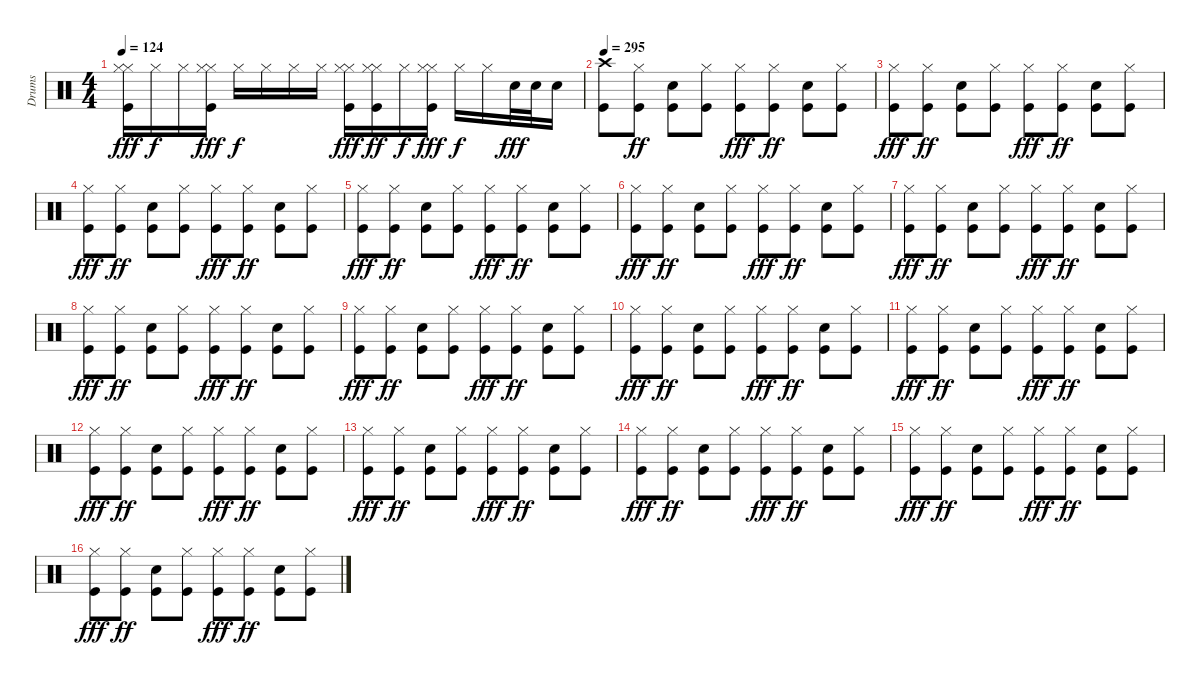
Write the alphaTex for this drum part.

\track ("Drums" "Drums") {instrument percussion}
\staff {score}
\articulation defaults
\ts (4 4)
\tempo 124
\clef neutral
\ks c
("Hi-Hat (closed)" "Hi-Hat (closed)" "Kick (hit)").16{dy fff} "Hi-Hat (closed)".16{dy f} "Hi-Hat (closed)".16 ("Hi-Hat (closed)" "Hi-Hat (closed)" "Kick (hit)").16{dy fff} "Hi-Hat (closed)".16{dy f} "Hi-Hat (closed)".16 "Hi-Hat (closed)".16 "Hi-Hat (closed)".16 ("Hi-Hat (closed)" "Hi-Hat (closed)" "Kick (hit)").16{dy fff} ("Hi-Hat (closed)" "Hi-Hat (closed)" "Kick (hit)").16{dy ff} "Hi-Hat (closed)".16{dy f} ("Hi-Hat (closed)" "Hi-Hat (closed)" "Kick (hit)").16{dy fff} "Hi-Hat (closed)".16{dy f} "Hi-Hat (closed)".16 "Snare (hit) 2".32{dy fff} "Snare (hit) 2".32 "Snare (hit) 2".16 |
\tempo 295
("Crash high (hit)" "Kick (hit)").8 ("Hi-Hat (closed)" "Kick (hit)").8{dy ff} ("Snare (hit) 2" "Kick (hit)").8 ("Hi-Hat (closed)" "Kick (hit)").8 ("Hi-Hat (closed)" "Kick (hit)").8{dy fff} ("Hi-Hat (closed)" "Kick (hit)").8{dy ff} ("Snare (hit) 2" "Kick (hit)").8 ("Hi-Hat (closed)" "Kick (hit)").8 |
("Hi-Hat (closed)" "Kick (hit)").8{dy fff} ("Hi-Hat (closed)" "Kick (hit)").8{dy ff} ("Snare (hit) 2" "Kick (hit)").8 ("Hi-Hat (closed)" "Kick (hit)").8 ("Hi-Hat (closed)" "Kick (hit)").8{dy fff} ("Hi-Hat (closed)" "Kick (hit)").8{dy ff} ("Snare (hit) 2" "Kick (hit)").8 ("Hi-Hat (closed)" "Kick (hit)").8 |
("Hi-Hat (closed)" "Kick (hit)").8{dy fff} ("Hi-Hat (closed)" "Kick (hit)").8{dy ff} ("Snare (hit) 2" "Kick (hit)").8 ("Hi-Hat (closed)" "Kick (hit)").8 ("Hi-Hat (closed)" "Kick (hit)").8{dy fff} ("Hi-Hat (closed)" "Kick (hit)").8{dy ff} ("Snare (hit) 2" "Kick (hit)").8 ("Hi-Hat (closed)" "Kick (hit)").8 |
("Hi-Hat (closed)" "Kick (hit)").8{dy fff} ("Hi-Hat (closed)" "Kick (hit)").8{dy ff} ("Snare (hit) 2" "Kick (hit)").8 ("Hi-Hat (closed)" "Kick (hit)").8 ("Hi-Hat (closed)" "Kick (hit)").8{dy fff} ("Hi-Hat (closed)" "Kick (hit)").8{dy ff} ("Snare (hit) 2" "Kick (hit)").8 ("Hi-Hat (closed)" "Kick (hit)").8 |
("Hi-Hat (closed)" "Kick (hit)").8{dy fff} ("Hi-Hat (closed)" "Kick (hit)").8{dy ff} ("Snare (hit) 2" "Kick (hit)").8 ("Hi-Hat (closed)" "Kick (hit)").8 ("Hi-Hat (closed)" "Kick (hit)").8{dy fff} ("Hi-Hat (closed)" "Kick (hit)").8{dy ff} ("Snare (hit) 2" "Kick (hit)").8 ("Hi-Hat (closed)" "Kick (hit)").8 |
("Hi-Hat (closed)" "Kick (hit)").8{dy fff} ("Hi-Hat (closed)" "Kick (hit)").8{dy ff} ("Snare (hit) 2" "Kick (hit)").8 ("Hi-Hat (closed)" "Kick (hit)").8 ("Hi-Hat (closed)" "Kick (hit)").8{dy fff} ("Hi-Hat (closed)" "Kick (hit)").8{dy ff} ("Snare (hit) 2" "Kick (hit)").8 ("Hi-Hat (closed)" "Kick (hit)").8 |
("Hi-Hat (closed)" "Kick (hit)").8{dy fff} ("Hi-Hat (closed)" "Kick (hit)").8{dy ff} ("Snare (hit) 2" "Kick (hit)").8 ("Hi-Hat (closed)" "Kick (hit)").8 ("Hi-Hat (closed)" "Kick (hit)").8{dy fff} ("Hi-Hat (closed)" "Kick (hit)").8{dy ff} ("Snare (hit) 2" "Kick (hit)").8 ("Hi-Hat (closed)" "Kick (hit)").8 |
("Hi-Hat (closed)" "Kick (hit)").8{dy fff} ("Hi-Hat (closed)" "Kick (hit)").8{dy ff} ("Snare (hit) 2" "Kick (hit)").8 ("Hi-Hat (closed)" "Kick (hit)").8 ("Hi-Hat (closed)" "Kick (hit)").8{dy fff} ("Hi-Hat (closed)" "Kick (hit)").8{dy ff} ("Snare (hit) 2" "Kick (hit)").8 ("Hi-Hat (closed)" "Kick (hit)").8 |
("Hi-Hat (closed)" "Kick (hit)").8{dy fff} ("Hi-Hat (closed)" "Kick (hit)").8{dy ff} ("Snare (hit) 2" "Kick (hit)").8 ("Hi-Hat (closed)" "Kick (hit)").8 ("Hi-Hat (closed)" "Kick (hit)").8{dy fff} ("Hi-Hat (closed)" "Kick (hit)").8{dy ff} ("Snare (hit) 2" "Kick (hit)").8 ("Hi-Hat (closed)" "Kick (hit)").8 |
("Hi-Hat (closed)" "Kick (hit)").8{dy fff} ("Hi-Hat (closed)" "Kick (hit)").8{dy ff} ("Snare (hit) 2" "Kick (hit)").8 ("Hi-Hat (closed)" "Kick (hit)").8 ("Hi-Hat (closed)" "Kick (hit)").8{dy fff} ("Hi-Hat (closed)" "Kick (hit)").8{dy ff} ("Snare (hit) 2" "Kick (hit)").8 ("Hi-Hat (closed)" "Kick (hit)").8 |
("Hi-Hat (closed)" "Kick (hit)").8{dy fff} ("Hi-Hat (closed)" "Kick (hit)").8{dy ff} ("Snare (hit) 2" "Kick (hit)").8 ("Hi-Hat (closed)" "Kick (hit)").8 ("Hi-Hat (closed)" "Kick (hit)").8{dy fff} ("Hi-Hat (closed)" "Kick (hit)").8{dy ff} ("Snare (hit) 2" "Kick (hit)").8 ("Hi-Hat (closed)" "Kick (hit)").8 |
("Hi-Hat (closed)" "Kick (hit)").8{dy fff} ("Hi-Hat (closed)" "Kick (hit)").8{dy ff} ("Snare (hit) 2" "Kick (hit)").8 ("Hi-Hat (closed)" "Kick (hit)").8 ("Hi-Hat (closed)" "Kick (hit)").8{dy fff} ("Hi-Hat (closed)" "Kick (hit)").8{dy ff} ("Snare (hit) 2" "Kick (hit)").8 ("Hi-Hat (closed)" "Kick (hit)").8 |
("Hi-Hat (closed)" "Kick (hit)").8{dy fff} ("Hi-Hat (closed)" "Kick (hit)").8{dy ff} ("Snare (hit) 2" "Kick (hit)").8 ("Hi-Hat (closed)" "Kick (hit)").8 ("Hi-Hat (closed)" "Kick (hit)").8{dy fff} ("Hi-Hat (closed)" "Kick (hit)").8{dy ff} ("Snare (hit) 2" "Kick (hit)").8 ("Hi-Hat (closed)" "Kick (hit)").8 |
("Hi-Hat (closed)" "Kick (hit)").8{dy fff} ("Hi-Hat (closed)" "Kick (hit)").8{dy ff} ("Snare (hit) 2" "Kick (hit)").8 ("Hi-Hat (closed)" "Kick (hit)").8 ("Hi-Hat (closed)" "Kick (hit)").8{dy fff} ("Hi-Hat (closed)" "Kick (hit)").8{dy ff} ("Snare (hit) 2" "Kick (hit)").8 ("Hi-Hat (closed)" "Kick (hit)").8 |
("Hi-Hat (closed)" "Kick (hit)").8{dy fff} ("Hi-Hat (closed)" "Kick (hit)").8{dy ff} ("Snare (hit) 2" "Kick (hit)").8 ("Hi-Hat (closed)" "Kick (hit)").8 ("Hi-Hat (closed)" "Kick (hit)").8{dy fff} ("Hi-Hat (closed)" "Kick (hit)").8{dy ff} ("Snare (hit) 2" "Kick (hit)").8 ("Hi-Hat (closed)" "Kick (hit)").8
